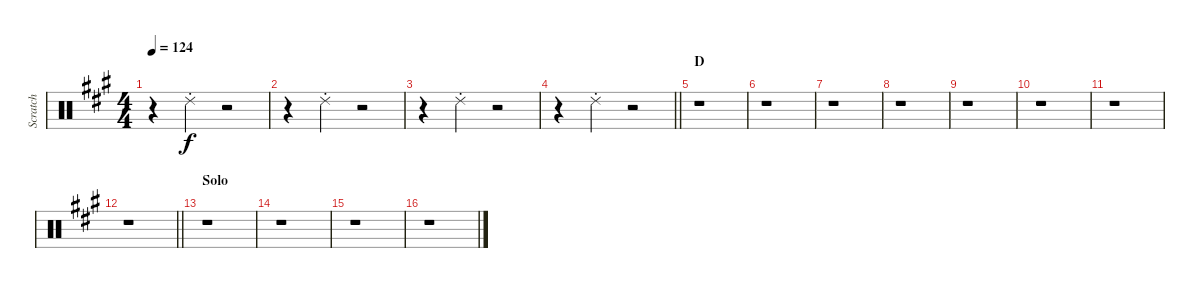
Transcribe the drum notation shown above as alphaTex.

\track ("Scratch" "Scratch") {instrument percussion}
\staff {score}
\articulation defaults
\ts (4 4)
\tempo 124
\clef neutral
\ks a
r.4{dy f} "Ride (choke) 2".4 r.2 |
r.4 "Ride (choke) 2".4 r.2 |
r.4 "Ride (choke) 2".4 r.2 |
\barLineRight lightlight
r.4 "Ride (choke) 2".4 r.2 |
\section ("" "D")
r.1 |
r.1 |
r.1 |
r.1 |
r.1 |
r.1 |
r.1 |
\barLineRight lightlight
r.1 |
\section ("" "Solo")
r.1 |
r.1 |
r.1 |
r.1
